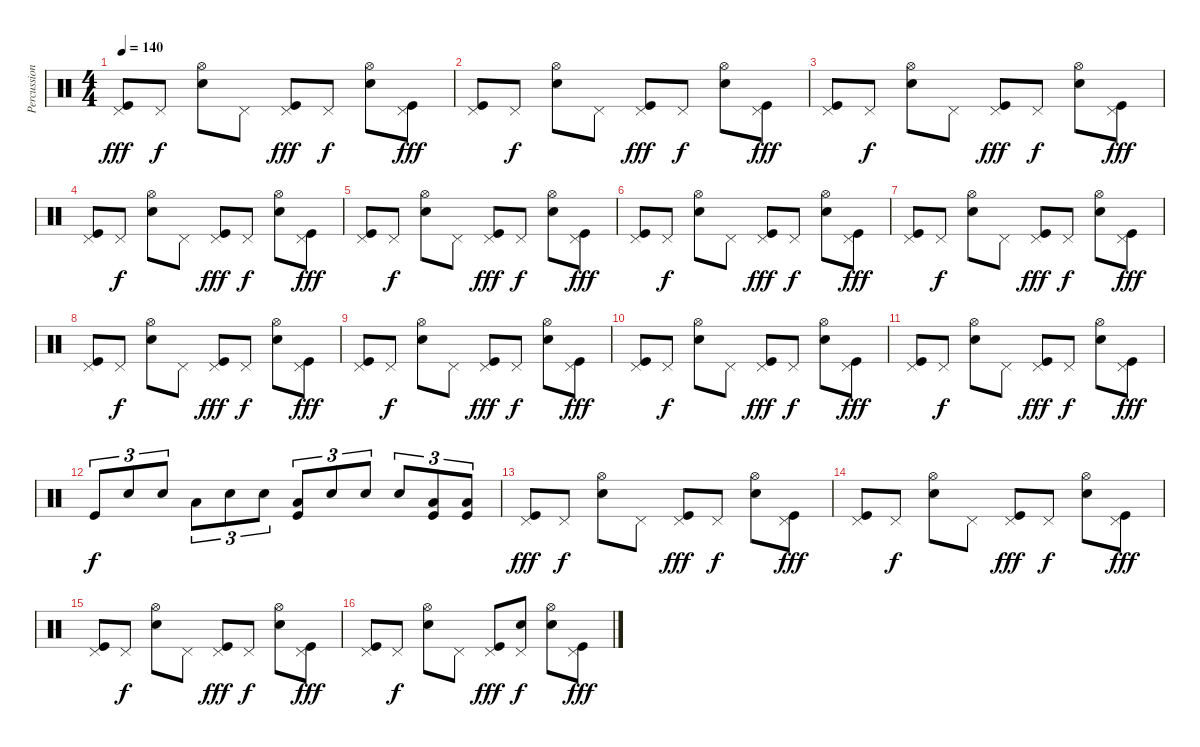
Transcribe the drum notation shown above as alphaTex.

\track ("Percussion" "Percussion") {instrument percussion}
\staff {score}
\articulation defaults
\ts (4 4)
\tempo 140
\clef neutral
\ks c
("Kick (hit)" "Pedal Hi-Hat (hit)").8{dy fff} "Pedal Hi-Hat (hit)".8{dy f} ("Metronome (bell)" "Hi-Hat (open)").8 "Pedal Hi-Hat (hit)".8 ("Kick (hit)" "Pedal Hi-Hat (hit)").8{dy fff} "Pedal Hi-Hat (hit)".8{dy f} ("Metronome (bell)" "Hi-Hat (open)").8 ("Kick (hit)" "Pedal Hi-Hat (hit)").8{dy fff} |
("Kick (hit)" "Pedal Hi-Hat (hit)").8 "Pedal Hi-Hat (hit)".8{dy f} ("Metronome (bell)" "Hi-Hat (open)").8 "Pedal Hi-Hat (hit)".8 ("Kick (hit)" "Pedal Hi-Hat (hit)").8{dy fff} "Pedal Hi-Hat (hit)".8{dy f} ("Metronome (bell)" "Hi-Hat (open)").8 ("Kick (hit)" "Pedal Hi-Hat (hit)").8{dy fff} |
("Kick (hit)" "Pedal Hi-Hat (hit)").8 "Pedal Hi-Hat (hit)".8{dy f} ("Metronome (bell)" "Hi-Hat (open)").8 "Pedal Hi-Hat (hit)".8 ("Kick (hit)" "Pedal Hi-Hat (hit)").8{dy fff} "Pedal Hi-Hat (hit)".8{dy f} ("Metronome (bell)" "Hi-Hat (open)").8 ("Kick (hit)" "Pedal Hi-Hat (hit)").8{dy fff} |
("Kick (hit)" "Pedal Hi-Hat (hit)").8 "Pedal Hi-Hat (hit)".8{dy f} ("Metronome (bell)" "Hi-Hat (open)").8 "Pedal Hi-Hat (hit)".8 ("Kick (hit)" "Pedal Hi-Hat (hit)").8{dy fff} "Pedal Hi-Hat (hit)".8{dy f} ("Metronome (bell)" "Hi-Hat (open)").8 ("Kick (hit)" "Pedal Hi-Hat (hit)").8{dy fff} |
("Kick (hit)" "Pedal Hi-Hat (hit)").8 "Pedal Hi-Hat (hit)".8{dy f} ("Metronome (bell)" "Hi-Hat (open)").8 "Pedal Hi-Hat (hit)".8 ("Kick (hit)" "Pedal Hi-Hat (hit)").8{dy fff} "Pedal Hi-Hat (hit)".8{dy f} ("Metronome (bell)" "Hi-Hat (open)").8 ("Kick (hit)" "Pedal Hi-Hat (hit)").8{dy fff} |
("Kick (hit)" "Pedal Hi-Hat (hit)").8 "Pedal Hi-Hat (hit)".8{dy f} ("Metronome (bell)" "Hi-Hat (open)").8 "Pedal Hi-Hat (hit)".8 ("Kick (hit)" "Pedal Hi-Hat (hit)").8{dy fff} "Pedal Hi-Hat (hit)".8{dy f} ("Metronome (bell)" "Hi-Hat (open)").8 ("Kick (hit)" "Pedal Hi-Hat (hit)").8{dy fff} |
("Kick (hit)" "Pedal Hi-Hat (hit)").8 "Pedal Hi-Hat (hit)".8{dy f} ("Metronome (bell)" "Hi-Hat (open)").8 "Pedal Hi-Hat (hit)".8 ("Kick (hit)" "Pedal Hi-Hat (hit)").8{dy fff} "Pedal Hi-Hat (hit)".8{dy f} ("Metronome (bell)" "Hi-Hat (open)").8 ("Kick (hit)" "Pedal Hi-Hat (hit)").8{dy fff} |
("Kick (hit)" "Pedal Hi-Hat (hit)").8 "Pedal Hi-Hat (hit)".8{dy f} ("Metronome (bell)" "Hi-Hat (open)").8 "Pedal Hi-Hat (hit)".8 ("Kick (hit)" "Pedal Hi-Hat (hit)").8{dy fff} "Pedal Hi-Hat (hit)".8{dy f} ("Metronome (bell)" "Hi-Hat (open)").8 ("Kick (hit)" "Pedal Hi-Hat (hit)").8{dy fff} |
("Kick (hit)" "Pedal Hi-Hat (hit)").8 "Pedal Hi-Hat (hit)".8{dy f} ("Metronome (bell)" "Hi-Hat (open)").8 "Pedal Hi-Hat (hit)".8 ("Kick (hit)" "Pedal Hi-Hat (hit)").8{dy fff} "Pedal Hi-Hat (hit)".8{dy f} ("Metronome (bell)" "Hi-Hat (open)").8 ("Kick (hit)" "Pedal Hi-Hat (hit)").8{dy fff} |
("Kick (hit)" "Pedal Hi-Hat (hit)").8 "Pedal Hi-Hat (hit)".8{dy f} ("Metronome (bell)" "Hi-Hat (open)").8 "Pedal Hi-Hat (hit)".8 ("Kick (hit)" "Pedal Hi-Hat (hit)").8{dy fff} "Pedal Hi-Hat (hit)".8{dy f} ("Metronome (bell)" "Hi-Hat (open)").8 ("Kick (hit)" "Pedal Hi-Hat (hit)").8{dy fff} |
("Kick (hit)" "Pedal Hi-Hat (hit)").8 "Pedal Hi-Hat (hit)".8{dy f} ("Metronome (bell)" "Hi-Hat (open)").8 "Pedal Hi-Hat (hit)".8 ("Kick (hit)" "Pedal Hi-Hat (hit)").8{dy fff} "Pedal Hi-Hat (hit)".8{dy f} ("Metronome (bell)" "Hi-Hat (open)").8 ("Kick (hit)" "Pedal Hi-Hat (hit)").8{dy fff} |
"Kick (hit)".8{tu (3 2) dy f} "Metronome (bell)".8{tu (3 2)} "Metronome (bell)".8{tu (3 2)} "Low Tom (hit)".8{tu (3 2)} "Metronome (bell)".8{tu (3 2)} "Metronome (bell)".8{tu (3 2)} ("Kick (hit)" "Low Tom (hit)").8{tu (3 2)} "Metronome (bell)".8{tu (3 2)} "Metronome (bell)".8{tu (3 2)} "Metronome (bell)".8{tu (3 2)} ("Kick (hit)" "Low Tom (hit)").8{tu (3 2)} ("Kick (hit)" "Low Tom (hit)").8{tu (3 2)} |
("Kick (hit)" "Pedal Hi-Hat (hit)").8{dy fff} "Pedal Hi-Hat (hit)".8{dy f} ("Metronome (bell)" "Hi-Hat (open)").8 "Pedal Hi-Hat (hit)".8 ("Kick (hit)" "Pedal Hi-Hat (hit)").8{dy fff} "Pedal Hi-Hat (hit)".8{dy f} ("Metronome (bell)" "Hi-Hat (open)").8 ("Kick (hit)" "Pedal Hi-Hat (hit)").8{dy fff} |
("Kick (hit)" "Pedal Hi-Hat (hit)").8 "Pedal Hi-Hat (hit)".8{dy f} ("Metronome (bell)" "Hi-Hat (open)").8 "Pedal Hi-Hat (hit)".8 ("Kick (hit)" "Pedal Hi-Hat (hit)").8{dy fff} "Pedal Hi-Hat (hit)".8{dy f} ("Metronome (bell)" "Hi-Hat (open)").8 ("Kick (hit)" "Pedal Hi-Hat (hit)").8{dy fff} |
("Kick (hit)" "Pedal Hi-Hat (hit)").8 "Pedal Hi-Hat (hit)".8{dy f} ("Metronome (bell)" "Hi-Hat (open)").8 "Pedal Hi-Hat (hit)".8 ("Kick (hit)" "Pedal Hi-Hat (hit)").8{dy fff} "Pedal Hi-Hat (hit)".8{dy f} ("Metronome (bell)" "Hi-Hat (open)").8 ("Kick (hit)" "Pedal Hi-Hat (hit)").8{dy fff} |
("Kick (hit)" "Pedal Hi-Hat (hit)").8 "Pedal Hi-Hat (hit)".8{dy f} ("Metronome (bell)" "Hi-Hat (open)").8 "Pedal Hi-Hat (hit)".8 ("Kick (hit)" "Pedal Hi-Hat (hit)").8{dy fff} ("Metronome (bell)" "Pedal Hi-Hat (hit)").8{dy f} ("Metronome (bell)" "Hi-Hat (open)").8 ("Kick (hit)" "Pedal Hi-Hat (hit)").8{dy fff}
